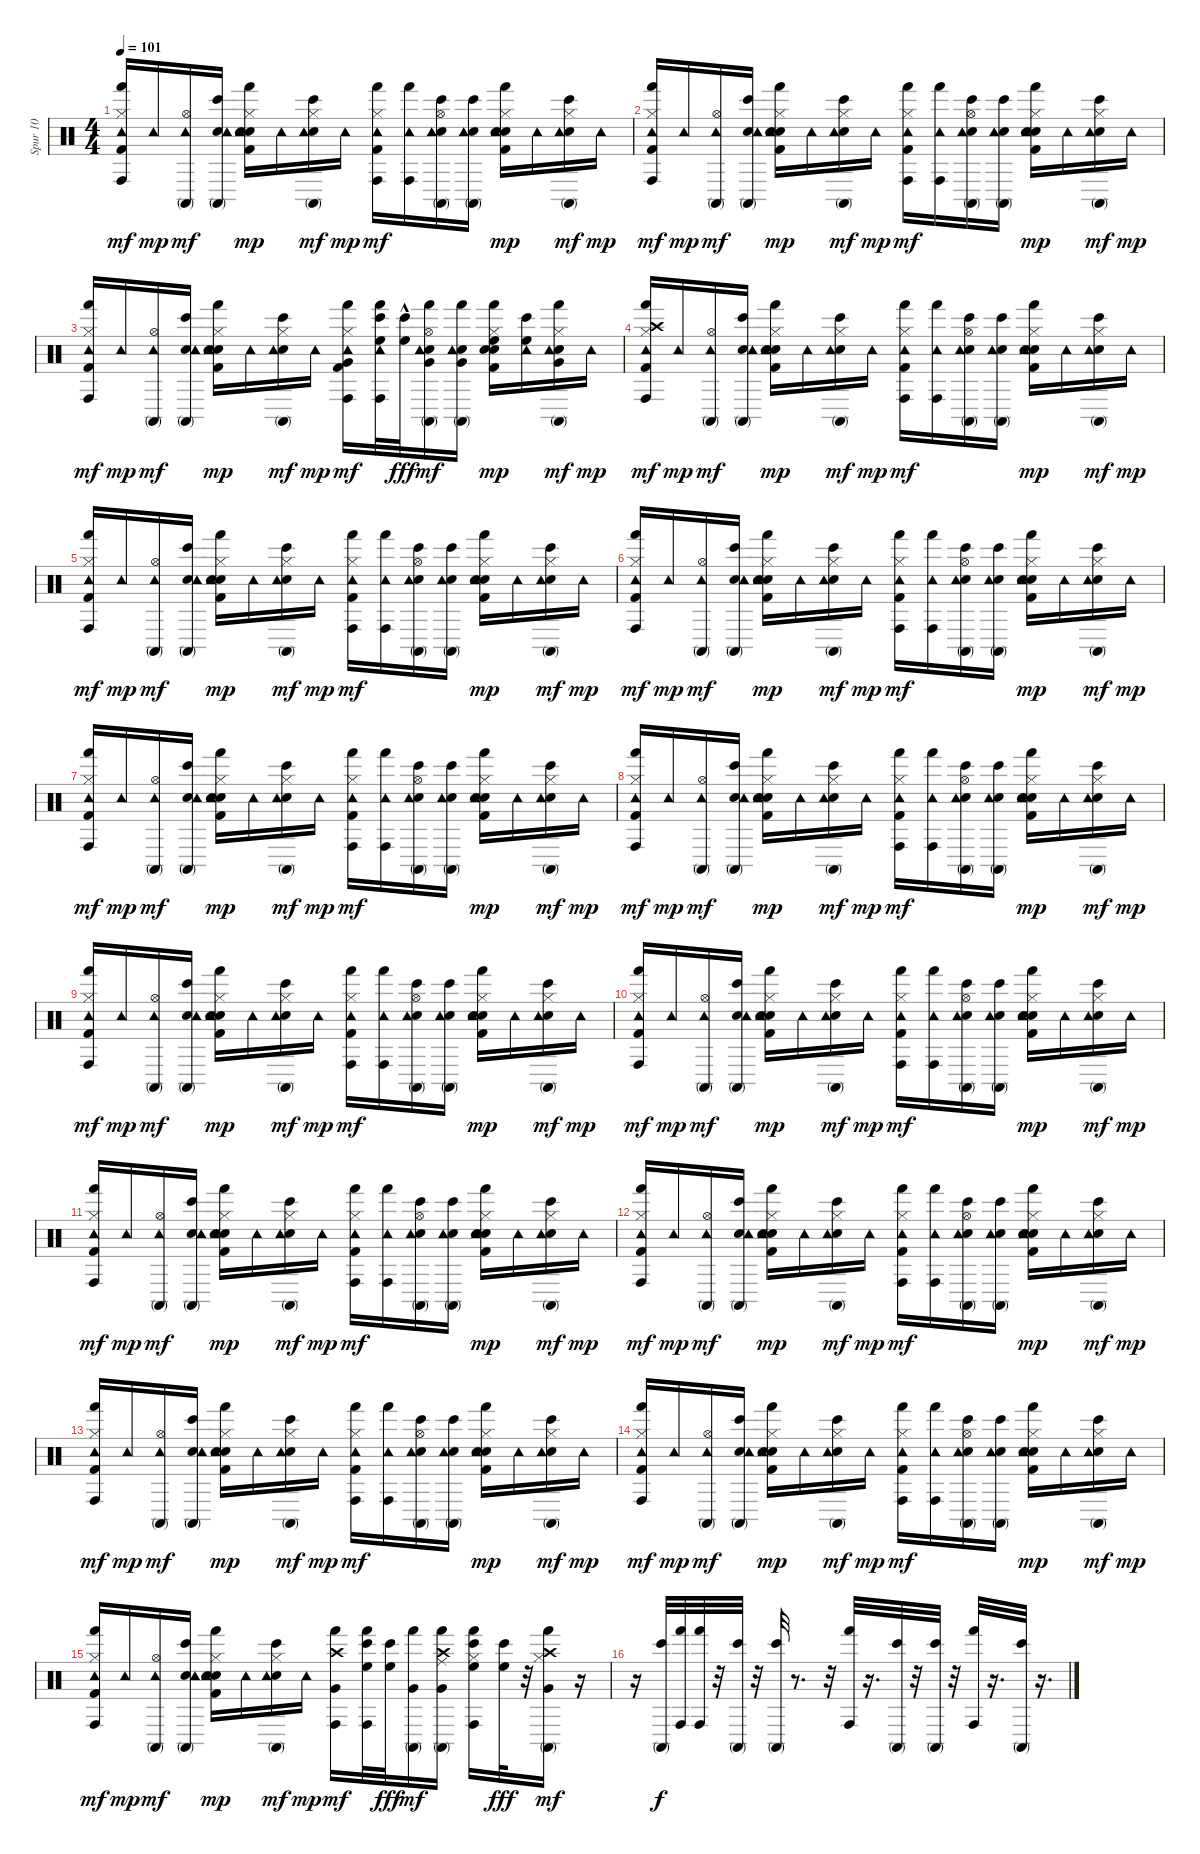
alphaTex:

\track ("Spur 10" "Spur 10") {instrument percussion}
\staff {score}
\articulation defaults
\ts (4 4)
\tempo 101
\clef neutral
\ks c
("Kick (hit) 2" "Hi-Hat (closed)" "Hand (hit)" "Tambourine (hit)" "Conga high (hit)").16{dy mf} "Tambourine (hit)".16{dy mp} ("Hi-Hat (open)" "Tambourine (hit)" "Conga high (mute)").16{dy mf} ("Hand Clap (hit)" "Bongo High (hit)" "Tambourine (hit)" "Conga high (mute)").16 ("Kick (hit) 2" "Snare (hit) 2" "Hi-Hat (closed)" "Hand Clap (hit)" "Hand (hit)" "Tambourine (hit)").16{dy mp} "Tambourine (hit)".16 ("Hi-Hat (closed)" "Hand Clap (hit)" "Bongo High (hit)" "Tambourine (hit)" "Conga high (mute)").16{dy mf} "Tambourine (hit)".16{dy mp} ("Kick (hit) 2" "Hi-Hat (closed)" "Hand (hit)" "Tambourine (hit)" "Conga high (hit)").16{dy mf} ("Hand (hit)" "Tambourine (hit)" "Conga high (hit)").16 ("Hi-Hat (open)" "Hand Clap (hit)" "Bongo High (hit)" "Tambourine (hit)" "Conga high (mute)").16 ("Hand Clap (hit)" "Bongo High (hit)" "Tambourine (hit)" "Conga high (mute)").16 ("Kick (hit) 2" "Snare (hit) 2" "Hi-Hat (closed)" "Hand Clap (hit)" "Hand (hit)" "Tambourine (hit)").16{dy mp} "Tambourine (hit)".16 ("Hi-Hat (closed)" "Hand Clap (hit)" "Bongo High (hit)" "Tambourine (hit)" "Conga high (mute)").16{dy mf} "Tambourine (hit)".16{dy mp} |
("Kick (hit) 2" "Hi-Hat (closed)" "Hand (hit)" "Tambourine (hit)" "Conga high (hit)").16{dy mf} "Tambourine (hit)".16{dy mp} ("Hi-Hat (open)" "Tambourine (hit)" "Conga high (mute)").16{dy mf} ("Hand Clap (hit)" "Bongo High (hit)" "Tambourine (hit)" "Conga high (mute)").16 ("Kick (hit) 2" "Snare (hit) 2" "Hi-Hat (closed)" "Hand Clap (hit)" "Hand (hit)" "Tambourine (hit)").16{dy mp} "Tambourine (hit)".16 ("Hi-Hat (closed)" "Hand Clap (hit)" "Bongo High (hit)" "Tambourine (hit)" "Conga high (mute)").16{dy mf} "Tambourine (hit)".16{dy mp} ("Kick (hit) 2" "Hi-Hat (closed)" "Hand (hit)" "Tambourine (hit)" "Conga high (hit)").16{dy mf} ("Hand (hit)" "Tambourine (hit)" "Conga high (hit)").16 ("Hi-Hat (open)" "Hand Clap (hit)" "Bongo High (hit)" "Tambourine (hit)" "Conga high (mute)").16 ("Hand Clap (hit)" "Bongo High (hit)" "Tambourine (hit)" "Conga high (mute)").16 ("Kick (hit) 2" "Snare (hit) 2" "Hi-Hat (closed)" "Hand Clap (hit)" "Hand (hit)" "Tambourine (hit)").16{dy mp} "Tambourine (hit)".16 ("Hi-Hat (closed)" "Hand Clap (hit)" "Bongo High (hit)" "Tambourine (hit)" "Conga high (mute)").16{dy mf} "Tambourine (hit)".16{dy mp} |
("Kick (hit) 2" "Hi-Hat (closed)" "Hand (hit)" "Tambourine (hit)" "Conga high (hit)").16{dy mf} "Tambourine (hit)".16{dy mp} ("Hi-Hat (open)" "Tambourine (hit)" "Conga high (mute)").16{dy mf} ("Hand Clap (hit)" "Bongo High (hit)" "Tambourine (hit)" "Conga high (mute)").16 ("Kick (hit) 2" "Snare (hit) 2" "Hi-Hat (closed)" "Hand Clap (hit)" "Hand (hit)" "Tambourine (hit)").16{dy mp} "Tambourine (hit)".16 ("Hi-Hat (closed)" "Hand Clap (hit)" "Bongo High (hit)" "Tambourine (hit)" "Conga high (mute)").16{dy mf} "Tambourine (hit)".16{dy mp} ("Kick (hit) 2" "Hi-Hat (closed)" "Very Low Tom (hit)" "Hand (hit)" "Tambourine (hit)" "Conga high (hit)").16{dy mf} ("High Floor Tom (hit)" "Hand (hit)" "Bongo High (hit)" "Tambourine (hit)" "Conga high (hit)").32 ("High Floor Tom (hit)" "Bongo High (hit)"{hac}).32{dy fff} ("Hi-Hat (open)" "Very Low Tom (hit)" "Hand Clap (hit)" "Hand (hit)" "Tambourine (hit)" "Conga high (mute)").16{dy mf} ("Very Low Tom (hit)" "Hand Clap (hit)" "Hand (hit)" "Tambourine (hit)" "Conga high (mute)").16 ("Kick (hit) 2" "Snare (hit) 2" "Hi-Hat (closed)" "High Floor Tom (hit)" "Hand Clap (hit)" "Hand (hit)").16{dy mp} ("High Floor Tom (hit)" "Bongo High (hit)" "Tambourine (hit)").16 ("Hi-Hat (closed)" "Very Low Tom (hit)" "Hand Clap (hit)" "Hand (hit)" "Tambourine (hit)" "Conga high (mute)").16{dy mf} "Tambourine (hit)".16{dy mp} |
("Kick (hit) 2" "Hi-Hat (closed)" "Crash high (hit)" "Hand (hit)" "Tambourine (hit)" "Conga high (hit)").16{dy mf} "Tambourine (hit)".16{dy mp} ("Hi-Hat (open)" "Tambourine (hit)" "Conga high (mute)").16{dy mf} ("Hand Clap (hit)" "Bongo High (hit)" "Tambourine (hit)" "Conga high (mute)").16 ("Kick (hit) 2" "Snare (hit) 2" "Hi-Hat (closed)" "Hand Clap (hit)" "Hand (hit)" "Tambourine (hit)").16{dy mp} "Tambourine (hit)".16 ("Hi-Hat (closed)" "Hand Clap (hit)" "Bongo High (hit)" "Tambourine (hit)" "Conga high (mute)").16{dy mf} "Tambourine (hit)".16{dy mp} ("Kick (hit) 2" "Hi-Hat (closed)" "Hand (hit)" "Tambourine (hit)" "Conga high (hit)").16{dy mf} ("Hand (hit)" "Tambourine (hit)" "Conga high (hit)").16 ("Hi-Hat (open)" "Hand Clap (hit)" "Bongo High (hit)" "Tambourine (hit)" "Conga high (mute)").16 ("Hand Clap (hit)" "Bongo High (hit)" "Tambourine (hit)" "Conga high (mute)").16 ("Kick (hit) 2" "Snare (hit) 2" "Hi-Hat (closed)" "Hand Clap (hit)" "Hand (hit)" "Tambourine (hit)").16{dy mp} "Tambourine (hit)".16 ("Hi-Hat (closed)" "Hand Clap (hit)" "Bongo High (hit)" "Tambourine (hit)" "Conga high (mute)").16{dy mf} "Tambourine (hit)".16{dy mp} |
("Kick (hit) 2" "Hi-Hat (closed)" "Hand (hit)" "Tambourine (hit)" "Conga high (hit)").16{dy mf} "Tambourine (hit)".16{dy mp} ("Hi-Hat (open)" "Tambourine (hit)" "Conga high (mute)").16{dy mf} ("Hand Clap (hit)" "Bongo High (hit)" "Tambourine (hit)" "Conga high (mute)").16 ("Kick (hit) 2" "Snare (hit) 2" "Hi-Hat (closed)" "Hand Clap (hit)" "Hand (hit)" "Tambourine (hit)").16{dy mp} "Tambourine (hit)".16 ("Hi-Hat (closed)" "Hand Clap (hit)" "Bongo High (hit)" "Tambourine (hit)" "Conga high (mute)").16{dy mf} "Tambourine (hit)".16{dy mp} ("Kick (hit) 2" "Hi-Hat (closed)" "Hand (hit)" "Tambourine (hit)" "Conga high (hit)").16{dy mf} ("Hand (hit)" "Tambourine (hit)" "Conga high (hit)").16 ("Hi-Hat (open)" "Hand Clap (hit)" "Bongo High (hit)" "Tambourine (hit)" "Conga high (mute)").16 ("Hand Clap (hit)" "Bongo High (hit)" "Tambourine (hit)" "Conga high (mute)").16 ("Kick (hit) 2" "Snare (hit) 2" "Hi-Hat (closed)" "Hand Clap (hit)" "Hand (hit)" "Tambourine (hit)").16{dy mp} "Tambourine (hit)".16 ("Hi-Hat (closed)" "Hand Clap (hit)" "Bongo High (hit)" "Tambourine (hit)" "Conga high (mute)").16{dy mf} "Tambourine (hit)".16{dy mp} |
("Kick (hit) 2" "Hi-Hat (closed)" "Hand (hit)" "Tambourine (hit)" "Conga high (hit)").16{dy mf} "Tambourine (hit)".16{dy mp} ("Hi-Hat (open)" "Tambourine (hit)" "Conga high (mute)").16{dy mf} ("Hand Clap (hit)" "Bongo High (hit)" "Tambourine (hit)" "Conga high (mute)").16 ("Kick (hit) 2" "Snare (hit) 2" "Hi-Hat (closed)" "Hand Clap (hit)" "Hand (hit)" "Tambourine (hit)").16{dy mp} "Tambourine (hit)".16 ("Hi-Hat (closed)" "Hand Clap (hit)" "Bongo High (hit)" "Tambourine (hit)" "Conga high (mute)").16{dy mf} "Tambourine (hit)".16{dy mp} ("Kick (hit) 2" "Hi-Hat (closed)" "Hand (hit)" "Tambourine (hit)" "Conga high (hit)").16{dy mf} ("Hand (hit)" "Tambourine (hit)" "Conga high (hit)").16 ("Hi-Hat (open)" "Hand Clap (hit)" "Bongo High (hit)" "Tambourine (hit)" "Conga high (mute)").16 ("Hand Clap (hit)" "Bongo High (hit)" "Tambourine (hit)" "Conga high (mute)").16 ("Kick (hit) 2" "Snare (hit) 2" "Hi-Hat (closed)" "Hand Clap (hit)" "Hand (hit)" "Tambourine (hit)").16{dy mp} "Tambourine (hit)".16 ("Hi-Hat (closed)" "Hand Clap (hit)" "Bongo High (hit)" "Tambourine (hit)" "Conga high (mute)").16{dy mf} "Tambourine (hit)".16{dy mp} |
("Kick (hit) 2" "Hi-Hat (closed)" "Hand (hit)" "Tambourine (hit)" "Conga high (hit)").16{dy mf} "Tambourine (hit)".16{dy mp} ("Hi-Hat (open)" "Tambourine (hit)" "Conga high (mute)").16{dy mf} ("Hand Clap (hit)" "Bongo High (hit)" "Tambourine (hit)" "Conga high (mute)").16 ("Kick (hit) 2" "Snare (hit) 2" "Hi-Hat (closed)" "Hand Clap (hit)" "Hand (hit)" "Tambourine (hit)").16{dy mp} "Tambourine (hit)".16 ("Hi-Hat (closed)" "Hand Clap (hit)" "Bongo High (hit)" "Tambourine (hit)" "Conga high (mute)").16{dy mf} "Tambourine (hit)".16{dy mp} ("Kick (hit) 2" "Hi-Hat (closed)" "Hand (hit)" "Tambourine (hit)" "Conga high (hit)").16{dy mf} ("Hand (hit)" "Tambourine (hit)" "Conga high (hit)").16 ("Hi-Hat (open)" "Hand Clap (hit)" "Bongo High (hit)" "Tambourine (hit)" "Conga high (mute)").16 ("Hand Clap (hit)" "Bongo High (hit)" "Tambourine (hit)" "Conga high (mute)").16 ("Kick (hit) 2" "Snare (hit) 2" "Hi-Hat (closed)" "Hand Clap (hit)" "Hand (hit)" "Tambourine (hit)").16{dy mp} "Tambourine (hit)".16 ("Hi-Hat (closed)" "Hand Clap (hit)" "Bongo High (hit)" "Tambourine (hit)" "Conga high (mute)").16{dy mf} "Tambourine (hit)".16{dy mp} |
("Kick (hit) 2" "Hi-Hat (closed)" "Hand (hit)" "Tambourine (hit)" "Conga high (hit)").16{dy mf} "Tambourine (hit)".16{dy mp} ("Hi-Hat (open)" "Tambourine (hit)" "Conga high (mute)").16{dy mf} ("Hand Clap (hit)" "Bongo High (hit)" "Tambourine (hit)" "Conga high (mute)").16 ("Kick (hit) 2" "Snare (hit) 2" "Hi-Hat (closed)" "Hand Clap (hit)" "Hand (hit)" "Tambourine (hit)").16{dy mp} "Tambourine (hit)".16 ("Hi-Hat (closed)" "Hand Clap (hit)" "Bongo High (hit)" "Tambourine (hit)" "Conga high (mute)").16{dy mf} "Tambourine (hit)".16{dy mp} ("Kick (hit) 2" "Hi-Hat (closed)" "Hand (hit)" "Tambourine (hit)" "Conga high (hit)").16{dy mf} ("Hand (hit)" "Tambourine (hit)" "Conga high (hit)").16 ("Hi-Hat (open)" "Hand Clap (hit)" "Bongo High (hit)" "Tambourine (hit)" "Conga high (mute)").16 ("Hand Clap (hit)" "Bongo High (hit)" "Tambourine (hit)" "Conga high (mute)").16 ("Kick (hit) 2" "Snare (hit) 2" "Hi-Hat (closed)" "Hand Clap (hit)" "Hand (hit)" "Tambourine (hit)").16{dy mp} "Tambourine (hit)".16 ("Hi-Hat (closed)" "Hand Clap (hit)" "Bongo High (hit)" "Tambourine (hit)" "Conga high (mute)").16{dy mf} "Tambourine (hit)".16{dy mp} |
("Kick (hit) 2" "Hi-Hat (closed)" "Hand (hit)" "Tambourine (hit)" "Conga high (hit)").16{dy mf} "Tambourine (hit)".16{dy mp} ("Hi-Hat (open)" "Tambourine (hit)" "Conga high (mute)").16{dy mf} ("Hand Clap (hit)" "Bongo High (hit)" "Tambourine (hit)" "Conga high (mute)").16 ("Kick (hit) 2" "Snare (hit) 2" "Hi-Hat (closed)" "Hand Clap (hit)" "Hand (hit)" "Tambourine (hit)").16{dy mp} "Tambourine (hit)".16 ("Hi-Hat (closed)" "Hand Clap (hit)" "Bongo High (hit)" "Tambourine (hit)" "Conga high (mute)").16{dy mf} "Tambourine (hit)".16{dy mp} ("Kick (hit) 2" "Hi-Hat (closed)" "Hand (hit)" "Tambourine (hit)" "Conga high (hit)").16{dy mf} ("Hand (hit)" "Tambourine (hit)" "Conga high (hit)").16 ("Hi-Hat (open)" "Hand Clap (hit)" "Bongo High (hit)" "Tambourine (hit)" "Conga high (mute)").16 ("Hand Clap (hit)" "Bongo High (hit)" "Tambourine (hit)" "Conga high (mute)").16 ("Kick (hit) 2" "Snare (hit) 2" "Hi-Hat (closed)" "Hand Clap (hit)" "Hand (hit)" "Tambourine (hit)").16{dy mp} "Tambourine (hit)".16 ("Hi-Hat (closed)" "Hand Clap (hit)" "Bongo High (hit)" "Tambourine (hit)" "Conga high (mute)").16{dy mf} "Tambourine (hit)".16{dy mp} |
("Kick (hit) 2" "Hi-Hat (closed)" "Hand (hit)" "Tambourine (hit)" "Conga high (hit)").16{dy mf} "Tambourine (hit)".16{dy mp} ("Hi-Hat (open)" "Tambourine (hit)" "Conga high (mute)").16{dy mf} ("Hand Clap (hit)" "Bongo High (hit)" "Tambourine (hit)" "Conga high (mute)").16 ("Kick (hit) 2" "Snare (hit) 2" "Hi-Hat (closed)" "Hand Clap (hit)" "Hand (hit)" "Tambourine (hit)").16{dy mp} "Tambourine (hit)".16 ("Hi-Hat (closed)" "Hand Clap (hit)" "Bongo High (hit)" "Tambourine (hit)" "Conga high (mute)").16{dy mf} "Tambourine (hit)".16{dy mp} ("Kick (hit) 2" "Hi-Hat (closed)" "Hand (hit)" "Tambourine (hit)" "Conga high (hit)").16{dy mf} ("Hand (hit)" "Tambourine (hit)" "Conga high (hit)").16 ("Hi-Hat (open)" "Hand Clap (hit)" "Bongo High (hit)" "Tambourine (hit)" "Conga high (mute)").16 ("Hand Clap (hit)" "Bongo High (hit)" "Tambourine (hit)" "Conga high (mute)").16 ("Kick (hit) 2" "Snare (hit) 2" "Hi-Hat (closed)" "Hand Clap (hit)" "Hand (hit)" "Tambourine (hit)").16{dy mp} "Tambourine (hit)".16 ("Hi-Hat (closed)" "Hand Clap (hit)" "Bongo High (hit)" "Tambourine (hit)" "Conga high (mute)").16{dy mf} "Tambourine (hit)".16{dy mp} |
("Kick (hit) 2" "Hi-Hat (closed)" "Hand (hit)" "Tambourine (hit)" "Conga high (hit)").16{dy mf} "Tambourine (hit)".16{dy mp} ("Hi-Hat (open)" "Tambourine (hit)" "Conga high (mute)").16{dy mf} ("Hand Clap (hit)" "Bongo High (hit)" "Tambourine (hit)" "Conga high (mute)").16 ("Kick (hit) 2" "Snare (hit) 2" "Hi-Hat (closed)" "Hand Clap (hit)" "Hand (hit)" "Tambourine (hit)").16{dy mp} "Tambourine (hit)".16 ("Hi-Hat (closed)" "Hand Clap (hit)" "Bongo High (hit)" "Tambourine (hit)" "Conga high (mute)").16{dy mf} "Tambourine (hit)".16{dy mp} ("Kick (hit) 2" "Hi-Hat (closed)" "Hand (hit)" "Tambourine (hit)" "Conga high (hit)").16{dy mf} ("Hand (hit)" "Tambourine (hit)" "Conga high (hit)").16 ("Hi-Hat (open)" "Hand Clap (hit)" "Bongo High (hit)" "Tambourine (hit)" "Conga high (mute)").16 ("Hand Clap (hit)" "Bongo High (hit)" "Tambourine (hit)" "Conga high (mute)").16 ("Kick (hit) 2" "Snare (hit) 2" "Hi-Hat (closed)" "Hand Clap (hit)" "Hand (hit)" "Tambourine (hit)").16{dy mp} "Tambourine (hit)".16 ("Hi-Hat (closed)" "Hand Clap (hit)" "Bongo High (hit)" "Tambourine (hit)" "Conga high (mute)").16{dy mf} "Tambourine (hit)".16{dy mp} |
("Kick (hit) 2" "Hi-Hat (closed)" "Hand (hit)" "Tambourine (hit)" "Conga high (hit)").16{dy mf} "Tambourine (hit)".16{dy mp} ("Hi-Hat (open)" "Tambourine (hit)" "Conga high (mute)").16{dy mf} ("Hand Clap (hit)" "Bongo High (hit)" "Tambourine (hit)" "Conga high (mute)").16 ("Kick (hit) 2" "Snare (hit) 2" "Hi-Hat (closed)" "Hand Clap (hit)" "Hand (hit)" "Tambourine (hit)").16{dy mp} "Tambourine (hit)".16 ("Hi-Hat (closed)" "Hand Clap (hit)" "Bongo High (hit)" "Tambourine (hit)" "Conga high (mute)").16{dy mf} "Tambourine (hit)".16{dy mp} ("Kick (hit) 2" "Hi-Hat (closed)" "Hand (hit)" "Tambourine (hit)" "Conga high (hit)").16{dy mf} ("Hand (hit)" "Tambourine (hit)" "Conga high (hit)").16 ("Hi-Hat (open)" "Hand Clap (hit)" "Bongo High (hit)" "Tambourine (hit)" "Conga high (mute)").16 ("Hand Clap (hit)" "Bongo High (hit)" "Tambourine (hit)" "Conga high (mute)").16 ("Kick (hit) 2" "Snare (hit) 2" "Hi-Hat (closed)" "Hand Clap (hit)" "Hand (hit)" "Tambourine (hit)").16{dy mp} "Tambourine (hit)".16 ("Hi-Hat (closed)" "Hand Clap (hit)" "Bongo High (hit)" "Tambourine (hit)" "Conga high (mute)").16{dy mf} "Tambourine (hit)".16{dy mp} |
("Kick (hit) 2" "Hi-Hat (closed)" "Hand (hit)" "Tambourine (hit)" "Conga high (hit)").16{dy mf} "Tambourine (hit)".16{dy mp} ("Hi-Hat (open)" "Tambourine (hit)" "Conga high (mute)").16{dy mf} ("Hand Clap (hit)" "Bongo High (hit)" "Tambourine (hit)" "Conga high (mute)").16 ("Kick (hit) 2" "Snare (hit) 2" "Hi-Hat (closed)" "Hand Clap (hit)" "Hand (hit)" "Tambourine (hit)").16{dy mp} "Tambourine (hit)".16 ("Hi-Hat (closed)" "Hand Clap (hit)" "Bongo High (hit)" "Tambourine (hit)" "Conga high (mute)").16{dy mf} "Tambourine (hit)".16{dy mp} ("Kick (hit) 2" "Hi-Hat (closed)" "Hand (hit)" "Tambourine (hit)" "Conga high (hit)").16{dy mf} ("Hand (hit)" "Tambourine (hit)" "Conga high (hit)").16 ("Hi-Hat (open)" "Hand Clap (hit)" "Bongo High (hit)" "Tambourine (hit)" "Conga high (mute)").16 ("Hand Clap (hit)" "Bongo High (hit)" "Tambourine (hit)" "Conga high (mute)").16 ("Kick (hit) 2" "Snare (hit) 2" "Hi-Hat (closed)" "Hand Clap (hit)" "Hand (hit)" "Tambourine (hit)").16{dy mp} "Tambourine (hit)".16 ("Hi-Hat (closed)" "Hand Clap (hit)" "Bongo High (hit)" "Tambourine (hit)" "Conga high (mute)").16{dy mf} "Tambourine (hit)".16{dy mp} |
("Kick (hit) 2" "Hi-Hat (closed)" "Hand (hit)" "Tambourine (hit)" "Conga high (hit)").16{dy mf} "Tambourine (hit)".16{dy mp} ("Hi-Hat (open)" "Tambourine (hit)" "Conga high (mute)").16{dy mf} ("Hand Clap (hit)" "Bongo High (hit)" "Tambourine (hit)" "Conga high (mute)").16 ("Kick (hit) 2" "Snare (hit) 2" "Hi-Hat (closed)" "Hand Clap (hit)" "Hand (hit)" "Tambourine (hit)").16{dy mp} "Tambourine (hit)".16 ("Hi-Hat (closed)" "Hand Clap (hit)" "Bongo High (hit)" "Tambourine (hit)" "Conga high (mute)").16{dy mf} "Tambourine (hit)".16{dy mp} ("Kick (hit) 2" "Hi-Hat (closed)" "Hand (hit)" "Tambourine (hit)" "Conga high (hit)").16{dy mf} ("Hand (hit)" "Tambourine (hit)" "Conga high (hit)").16 ("Hi-Hat (open)" "Hand Clap (hit)" "Bongo High (hit)" "Tambourine (hit)" "Conga high (mute)").16 ("Hand Clap (hit)" "Bongo High (hit)" "Tambourine (hit)" "Conga high (mute)").16 ("Kick (hit) 2" "Snare (hit) 2" "Hi-Hat (closed)" "Hand Clap (hit)" "Hand (hit)" "Tambourine (hit)").16{dy mp} "Tambourine (hit)".16 ("Hi-Hat (closed)" "Hand Clap (hit)" "Bongo High (hit)" "Tambourine (hit)" "Conga high (mute)").16{dy mf} "Tambourine (hit)".16{dy mp} |
("Kick (hit) 2" "Hi-Hat (closed)" "Hand (hit)" "Tambourine (hit)" "Conga high (hit)").16{dy mf} "Tambourine (hit)".16{dy mp} ("Hi-Hat (open)" "Tambourine (hit)" "Conga high (mute)").16{dy mf} ("Hand Clap (hit)" "Bongo High (hit)" "Tambourine (hit)" "Conga high (mute)").16 ("Kick (hit) 2" "Snare (hit) 2" "Hi-Hat (closed)" "Hand Clap (hit)" "Hand (hit)" "Tambourine (hit)").16{dy mp} "Tambourine (hit)".16 ("Hi-Hat (closed)" "Hand Clap (hit)" "Bongo High (hit)" "Tambourine (hit)" "Conga high (mute)").16{dy mf} "Tambourine (hit)".16{dy mp} ("Very Low Tom (hit)" "Crash high (hit)" "Hand (hit)" "Conga high (hit)").16{dy mf} ("High Floor Tom (hit)" "Hand (hit)" "Bongo High (hit)" "Conga high (hit)").32 ("High Floor Tom (hit)" "Bongo High (hit)").32{dy fff} ("Very Low Tom (hit)" "Hand (hit)" "Conga high (mute)").16{dy mf} ("Very Low Tom (hit)" "Crash high (hit)" "Ride (middle)" "Hand (hit)" "Conga high (mute)").16 ("Hi-Hat (closed)" "High Floor Tom (hit)" "Hand (hit)" "Bongo High (hit)" "Conga high (hit)").16 ("High Floor Tom (hit)" "Bongo High (hit)").32{dy fff} r.32 ("Hi-Hat (closed)" "Very Low Tom (hit)" "Crash high (hit)" "Hand (hit)" "Conga high (mute)").16{dy mf} r.16 |
r.16 ("Bongo High (hit)" "Conga high (mute)").32{dy f} ("Hand (hit)" "Conga high (hit)").32 ("Hand (hit)" "Conga high (hit)").32 r.32 ("Bongo High (hit)" "Conga high (mute)").32 r.32 ("Bongo High (hit)" "Conga high (mute)").32 r.8{d} r.32 ("Hand (hit)" "Conga high (hit)").32 r.16{d} ("Bongo High (hit)" "Conga high (mute)").32 r.32 ("Bongo High (hit)" "Conga high (mute)").32 r.32 ("Hand (hit)" "Conga high (hit)").32 r.16{d} ("Bongo High (hit)" "Conga high (mute)").32 r.16{d}
